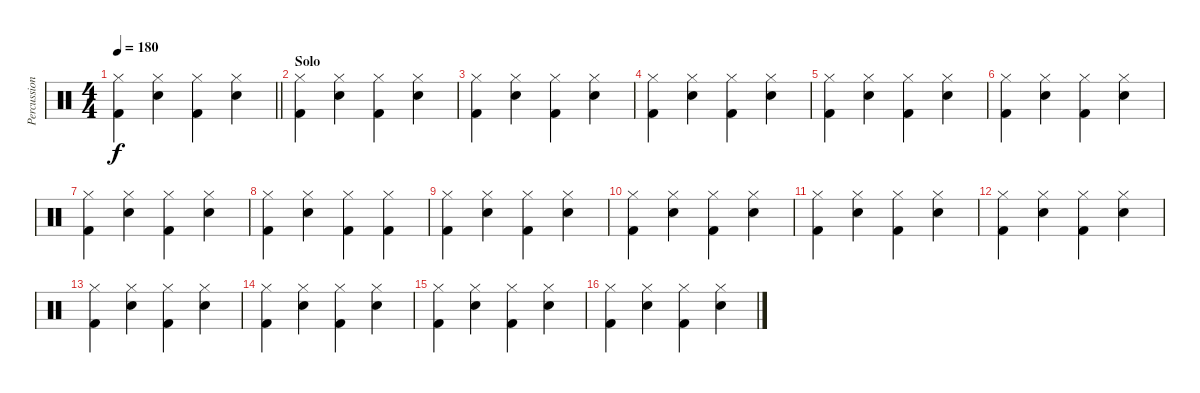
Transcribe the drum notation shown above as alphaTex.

\track ("Percussion" "Percussion") {instrument percussion}
\staff {score}
\articulation defaults
\ts (4 4)
\tempo 180
\clef neutral
\barLineRight lightlight
\ks c
("Hi-Hat (closed)" "Kick (hit) 2").4{dy f} ("Hi-Hat (closed)" "Electric Snare (hit)").4 ("Hi-Hat (closed)" "Kick (hit) 2").4 ("Hi-Hat (closed)" "Electric Snare (hit)").4 |
\section ("" "Solo")
("Hi-Hat (closed)" "Kick (hit) 2").4 ("Hi-Hat (closed)" "Electric Snare (hit)").4 ("Hi-Hat (closed)" "Kick (hit) 2").4 ("Hi-Hat (closed)" "Electric Snare (hit)").4 |
("Hi-Hat (closed)" "Kick (hit) 2").4 ("Hi-Hat (closed)" "Electric Snare (hit)").4 ("Hi-Hat (closed)" "Kick (hit) 2").4 ("Hi-Hat (closed)" "Electric Snare (hit)").4 |
("Hi-Hat (closed)" "Kick (hit) 2").4 ("Hi-Hat (closed)" "Electric Snare (hit)").4 ("Hi-Hat (closed)" "Kick (hit) 2").4 ("Hi-Hat (closed)" "Electric Snare (hit)").4 |
("Hi-Hat (closed)" "Kick (hit) 2").4 ("Hi-Hat (closed)" "Electric Snare (hit)").4 ("Hi-Hat (closed)" "Kick (hit) 2").4 ("Hi-Hat (closed)" "Electric Snare (hit)").4 |
("Hi-Hat (closed)" "Kick (hit) 2").4 ("Hi-Hat (closed)" "Electric Snare (hit)").4 ("Hi-Hat (closed)" "Kick (hit) 2").4 ("Hi-Hat (closed)" "Electric Snare (hit)").4 |
("Hi-Hat (closed)" "Kick (hit) 2").4 ("Hi-Hat (closed)" "Electric Snare (hit)").4 ("Hi-Hat (closed)" "Kick (hit) 2").4 ("Hi-Hat (closed)" "Electric Snare (hit)").4 |
("Hi-Hat (closed)" "Kick (hit) 2").4 ("Hi-Hat (closed)" "Electric Snare (hit)").4 ("Hi-Hat (closed)" "Kick (hit) 2").4 ("Hi-Hat (closed)" "Kick (hit) 2").4 |
("Hi-Hat (closed)" "Kick (hit) 2").4 ("Hi-Hat (closed)" "Electric Snare (hit)").4 ("Hi-Hat (closed)" "Kick (hit) 2").4 ("Hi-Hat (closed)" "Electric Snare (hit)").4 |
("Hi-Hat (closed)" "Kick (hit) 2").4 ("Hi-Hat (closed)" "Electric Snare (hit)").4 ("Hi-Hat (closed)" "Kick (hit) 2").4 ("Hi-Hat (closed)" "Electric Snare (hit)").4 |
("Hi-Hat (closed)" "Kick (hit) 2").4 ("Hi-Hat (closed)" "Electric Snare (hit)").4 ("Hi-Hat (closed)" "Kick (hit) 2").4 ("Hi-Hat (closed)" "Electric Snare (hit)").4 |
("Hi-Hat (closed)" "Kick (hit) 2").4 ("Hi-Hat (closed)" "Electric Snare (hit)").4 ("Hi-Hat (closed)" "Kick (hit) 2").4 ("Hi-Hat (closed)" "Electric Snare (hit)").4 |
("Hi-Hat (closed)" "Kick (hit) 2").4 ("Hi-Hat (closed)" "Electric Snare (hit)").4 ("Hi-Hat (closed)" "Kick (hit) 2").4 ("Hi-Hat (closed)" "Electric Snare (hit)").4 |
("Hi-Hat (closed)" "Kick (hit) 2").4 ("Hi-Hat (closed)" "Electric Snare (hit)").4 ("Hi-Hat (closed)" "Kick (hit) 2").4 ("Hi-Hat (closed)" "Electric Snare (hit)").4 |
("Hi-Hat (closed)" "Kick (hit) 2").4 ("Hi-Hat (closed)" "Electric Snare (hit)").4 ("Hi-Hat (closed)" "Kick (hit) 2").4 ("Hi-Hat (closed)" "Electric Snare (hit)").4 |
("Hi-Hat (closed)" "Kick (hit) 2").4 ("Hi-Hat (closed)" "Electric Snare (hit)").4 ("Hi-Hat (closed)" "Kick (hit) 2").4 ("Hi-Hat (closed)" "Electric Snare (hit)").4
